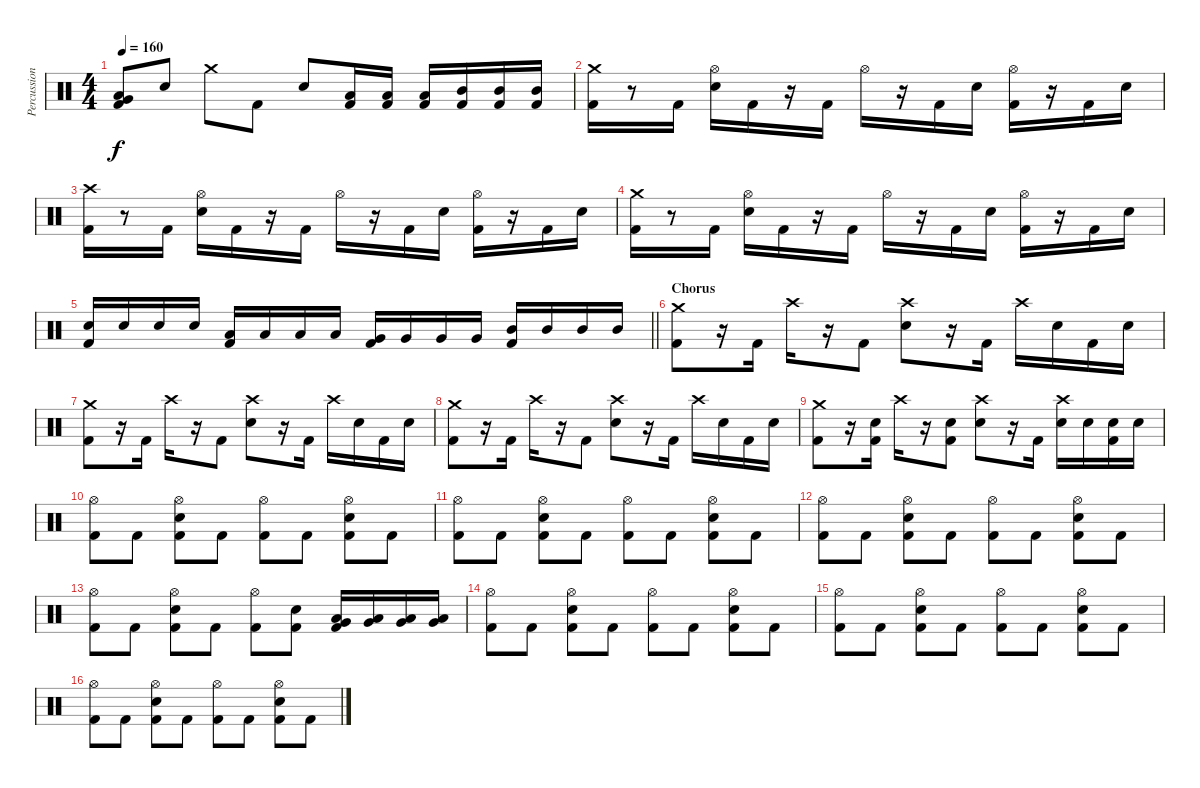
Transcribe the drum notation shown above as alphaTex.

\track ("Percussion" "Percussion") {instrument percussion}
\staff {score}
\articulation defaults
\ts (4 4)
\tempo 160
\clef neutral
\ks c
("Low Tom (hit)" "Very Low Tom (hit)" "Kick (hit) 2").8{dy f} "Electric Snare (hit)".8 "Crash medium (hit)".8 "Kick (hit) 2".8 "Electric Snare (hit)".8 ("Low Tom (hit)" "Kick (hit) 2").16 ("Low Tom (hit)" "Kick (hit) 2").16 ("Low Tom (hit)" "Kick (hit) 2").16 ("Mid Tom (hit)" "Kick (hit) 2").16 ("Mid Tom (hit)" "Kick (hit) 2").16 ("Mid Tom (hit)" "Kick (hit) 2").16 |
("Crash medium (hit)" "Kick (hit) 2").16 r.8 "Kick (hit) 2".16 ("Hi-Hat (open)" "Electric Snare (hit)").16 "Kick (hit) 2".16 r.16 "Kick (hit) 2".16 "Hi-Hat (open)".16 r.16 "Kick (hit) 2".16 "Electric Snare (hit)".16 ("Hi-Hat (open)" "Kick (hit) 2").16 r.16 "Kick (hit) 2".16 "Electric Snare (hit)".16 |
("Crash high (hit)" "Kick (hit) 2").16 r.8 "Kick (hit) 2".16 ("Hi-Hat (open)" "Electric Snare (hit)").16 "Kick (hit) 2".16 r.16 "Kick (hit) 2".16 "Hi-Hat (open)".16 r.16 "Kick (hit) 2".16 "Electric Snare (hit)".16 ("Hi-Hat (open)" "Kick (hit) 2").16 r.16 "Kick (hit) 2".16 "Electric Snare (hit)".16 |
("Crash medium (hit)" "Kick (hit) 2").16 r.8 "Kick (hit) 2".16 ("Hi-Hat (open)" "Electric Snare (hit)").16 "Kick (hit) 2".16 r.16 "Kick (hit) 2".16 "Hi-Hat (open)".16 r.16 "Kick (hit) 2".16 "Electric Snare (hit)".16 ("Hi-Hat (open)" "Kick (hit) 2").16 r.16 "Kick (hit) 2".16 "Electric Snare (hit)".16 |
\barLineRight lightlight
("Electric Snare (hit)" "Kick (hit) 2").16 "Electric Snare (hit)".16 "Electric Snare (hit)".16 "Electric Snare (hit)".16 ("Low Tom (hit)" "Kick (hit) 2").16 "Low Tom (hit)".16 "Low Tom (hit)".16 "Low Tom (hit)".16 ("Very Low Tom (hit)" "Kick (hit) 2").16 "Very Low Tom (hit)".16 "Very Low Tom (hit)".16 "Very Low Tom (hit)".16 ("Mid Tom (hit)" "Kick (hit) 2").16 "Mid Tom (hit)".16 "Mid Tom (hit)".16 "Mid Tom (hit)".16 |
\section ("" "Chorus")
("Crash medium (hit)" "Kick (hit) 2").8 r.16 "Kick (hit) 2".16 "Crash high (hit)".16 r.16 "Kick (hit) 2".8 ("Crash high (hit)" "Electric Snare (hit)").8 r.16 "Kick (hit) 2".16 "Crash high (hit)".16 "Electric Snare (hit)".16 "Kick (hit) 2".16 "Electric Snare (hit)".16 |
("Crash medium (hit)" "Kick (hit) 2").8 r.16 "Kick (hit) 2".16 "Crash high (hit)".16 r.16 "Kick (hit) 2".8 ("Crash high (hit)" "Electric Snare (hit)").8 r.16 "Kick (hit) 2".16 "Crash high (hit)".16 "Electric Snare (hit)".16 "Kick (hit) 2".16 "Electric Snare (hit)".16 |
("Crash medium (hit)" "Kick (hit) 2").8 r.16 "Kick (hit) 2".16 "Crash high (hit)".16 r.16 "Kick (hit) 2".8 ("Crash high (hit)" "Electric Snare (hit)").8 r.16 "Kick (hit) 2".16 "Crash high (hit)".16 "Electric Snare (hit)".16 "Kick (hit) 2".16 "Electric Snare (hit)".16 |
("Crash medium (hit)" "Kick (hit) 2").8 r.16 ("Electric Snare (hit)" "Kick (hit) 2").16 "Crash high (hit)".16 r.16 ("Electric Snare (hit)" "Kick (hit) 2").8 ("Crash high (hit)" "Electric Snare (hit)").8 r.16 "Kick (hit) 2".16 ("Crash high (hit)" "Electric Snare (hit)").16 "Electric Snare (hit)".16 ("Electric Snare (hit)" "Kick (hit) 2").16 "Electric Snare (hit)".16 |
("Hi-Hat (open)" "Kick (hit) 2").8 "Kick (hit) 2".8 ("Hi-Hat (open)" "Electric Snare (hit)" "Kick (hit) 2").8 "Kick (hit) 2".8 ("Hi-Hat (open)" "Kick (hit) 2").8 "Kick (hit) 2".8 ("Hi-Hat (open)" "Electric Snare (hit)" "Kick (hit) 2").8 "Kick (hit) 2".8 |
("Hi-Hat (open)" "Kick (hit) 2").8 "Kick (hit) 2".8 ("Hi-Hat (open)" "Electric Snare (hit)" "Kick (hit) 2").8 "Kick (hit) 2".8 ("Hi-Hat (open)" "Kick (hit) 2").8 "Kick (hit) 2".8 ("Hi-Hat (open)" "Electric Snare (hit)" "Kick (hit) 2").8 "Kick (hit) 2".8 |
("Hi-Hat (open)" "Kick (hit) 2").8 "Kick (hit) 2".8 ("Hi-Hat (open)" "Electric Snare (hit)" "Kick (hit) 2").8 "Kick (hit) 2".8 ("Hi-Hat (open)" "Kick (hit) 2").8 "Kick (hit) 2".8 ("Hi-Hat (open)" "Electric Snare (hit)" "Kick (hit) 2").8 "Kick (hit) 2".8 |
("Hi-Hat (open)" "Kick (hit) 2").8 "Kick (hit) 2".8 ("Hi-Hat (open)" "Electric Snare (hit)" "Kick (hit) 2").8 "Kick (hit) 2".8 ("Hi-Hat (open)" "Kick (hit) 2").8 ("Electric Snare (hit)" "Kick (hit) 2").8 ("Low Tom (hit)" "Very Low Tom (hit)" "Kick (hit) 2").16 ("Low Tom (hit)" "Very Low Tom (hit)").16 ("Low Tom (hit)" "Very Low Tom (hit)").16 ("Low Tom (hit)" "Very Low Tom (hit)").16 |
("Hi-Hat (open)" "Kick (hit) 2").8 "Kick (hit) 2".8 ("Hi-Hat (open)" "Electric Snare (hit)" "Kick (hit) 2").8 "Kick (hit) 2".8 ("Hi-Hat (open)" "Kick (hit) 2").8 "Kick (hit) 2".8 ("Hi-Hat (open)" "Electric Snare (hit)" "Kick (hit) 2").8 "Kick (hit) 2".8 |
("Hi-Hat (open)" "Kick (hit) 2").8 "Kick (hit) 2".8 ("Hi-Hat (open)" "Electric Snare (hit)" "Kick (hit) 2").8 "Kick (hit) 2".8 ("Hi-Hat (open)" "Kick (hit) 2").8 "Kick (hit) 2".8 ("Hi-Hat (open)" "Electric Snare (hit)" "Kick (hit) 2").8 "Kick (hit) 2".8 |
("Hi-Hat (open)" "Kick (hit) 2").8 "Kick (hit) 2".8 ("Hi-Hat (open)" "Electric Snare (hit)" "Kick (hit) 2").8 "Kick (hit) 2".8 ("Hi-Hat (open)" "Kick (hit) 2").8 "Kick (hit) 2".8 ("Hi-Hat (open)" "Electric Snare (hit)" "Kick (hit) 2").8 "Kick (hit) 2".8
